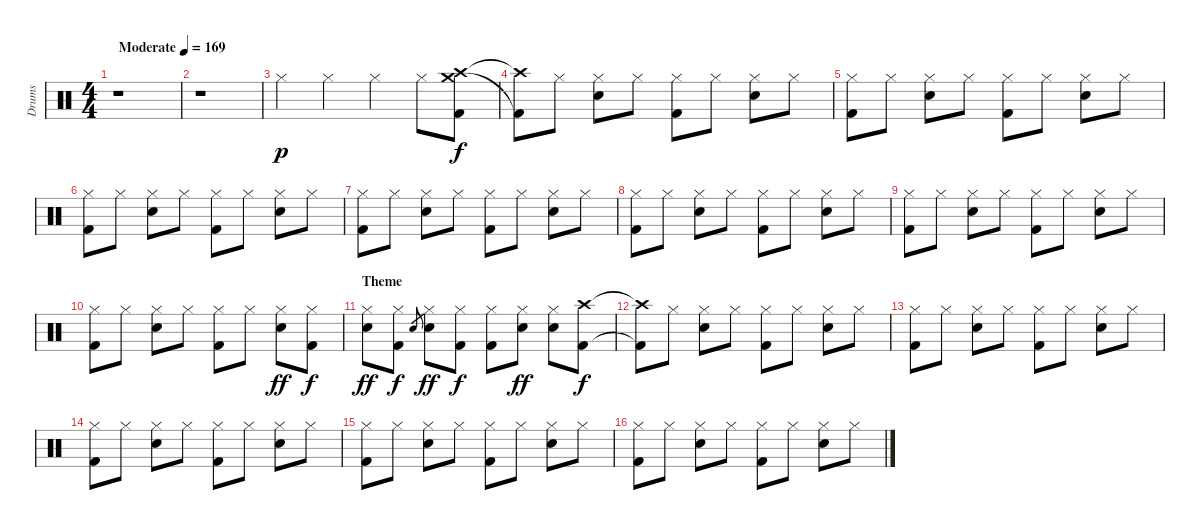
\track ("Drums" "Drums") {instrument percussion}
\staff {score}
\articulation defaults
\ts (4 4)
\tempo (169 "Moderate")
\clef neutral
\ks c
r.1{dy p} |
r.1 |
"Hi-Hat (closed)".4 "Hi-Hat (closed)".4 "Hi-Hat (closed)".4 "Hi-Hat (closed)".8 ("Crash high (hit)" "Crash medium (hit)" "Kick (hit) 2").8{dy f} |
("Crash high (hit)"{t} "Kick (hit) 2"{t}).8 "Hi-Hat (closed)".8 ("Hi-Hat (closed)" "Snare (hit) 2").8 "Hi-Hat (closed)".8 ("Hi-Hat (closed)" "Kick (hit) 2").8 "Hi-Hat (closed)".8 ("Hi-Hat (closed)" "Snare (hit) 2").8 "Hi-Hat (closed)".8 |
("Hi-Hat (closed)" "Kick (hit) 2").8 "Hi-Hat (closed)".8 ("Hi-Hat (closed)" "Snare (hit) 2").8 "Hi-Hat (closed)".8 ("Hi-Hat (closed)" "Kick (hit) 2").8 "Hi-Hat (closed)".8 ("Hi-Hat (closed)" "Snare (hit) 2").8 "Hi-Hat (closed)".8 |
("Hi-Hat (closed)" "Kick (hit) 2").8 "Hi-Hat (closed)".8 ("Hi-Hat (closed)" "Snare (hit) 2").8 "Hi-Hat (closed)".8 ("Hi-Hat (closed)" "Kick (hit) 2").8 "Hi-Hat (closed)".8 ("Hi-Hat (closed)" "Snare (hit) 2").8 "Hi-Hat (closed)".8 |
("Hi-Hat (closed)" "Kick (hit) 2").8 "Hi-Hat (closed)".8 ("Hi-Hat (closed)" "Snare (hit) 2").8 "Hi-Hat (closed)".8 ("Hi-Hat (closed)" "Kick (hit) 2").8 "Hi-Hat (closed)".8 ("Hi-Hat (closed)" "Snare (hit) 2").8 "Hi-Hat (closed)".8 |
("Hi-Hat (closed)" "Kick (hit) 2").8 "Hi-Hat (closed)".8 ("Hi-Hat (closed)" "Snare (hit) 2").8 "Hi-Hat (closed)".8 ("Hi-Hat (closed)" "Kick (hit) 2").8 "Hi-Hat (closed)".8 ("Hi-Hat (closed)" "Snare (hit) 2").8 "Hi-Hat (closed)".8 |
("Hi-Hat (closed)" "Kick (hit) 2").8 "Hi-Hat (closed)".8 ("Hi-Hat (closed)" "Snare (hit) 2").8 "Hi-Hat (closed)".8 ("Hi-Hat (closed)" "Kick (hit) 2").8 "Hi-Hat (closed)".8 ("Hi-Hat (closed)" "Snare (hit) 2").8 "Hi-Hat (closed)".8 |
("Hi-Hat (closed)" "Kick (hit) 2").8 "Hi-Hat (closed)".8 ("Hi-Hat (closed)" "Snare (hit) 2").8 "Hi-Hat (closed)".8 ("Hi-Hat (closed)" "Kick (hit) 2").8 "Hi-Hat (closed)".8 ("Hi-Hat (closed)" "Snare (hit) 2").8{dy ff} ("Hi-Hat (closed)" "Kick (hit) 2").8{dy f} |
\section ("" "Theme")
("Hi-Hat (closed)" "Snare (hit) 2").8{dy ff} ("Hi-Hat (closed)" "Kick (hit) 2").8{dy f} "Snare (hit) 2".8{gr} ("Hi-Hat (closed)" "Snare (hit) 2").8{dy ff} ("Hi-Hat (closed)" "Kick (hit) 2").8{dy f} ("Hi-Hat (closed)" "Kick (hit) 2").8 ("Hi-Hat (closed)" "Snare (hit) 2").8{dy ff} ("Hi-Hat (closed)" "Snare (hit) 2").8 ("Crash high (hit)" "Kick (hit) 2").8{dy f} |
("Crash high (hit)"{t} "Kick (hit) 2"{t}).8 "Hi-Hat (closed)".8 ("Hi-Hat (closed)" "Snare (hit) 2").8 "Hi-Hat (closed)".8 ("Hi-Hat (closed)" "Kick (hit) 2").8 "Hi-Hat (closed)".8 ("Hi-Hat (closed)" "Snare (hit) 2").8 "Hi-Hat (closed)".8 |
("Hi-Hat (closed)" "Kick (hit) 2").8 "Hi-Hat (closed)".8 ("Hi-Hat (closed)" "Snare (hit) 2").8 "Hi-Hat (closed)".8 ("Hi-Hat (closed)" "Kick (hit) 2").8 "Hi-Hat (closed)".8 ("Hi-Hat (closed)" "Snare (hit) 2").8 "Hi-Hat (closed)".8 |
("Hi-Hat (closed)" "Kick (hit) 2").8 "Hi-Hat (closed)".8 ("Hi-Hat (closed)" "Snare (hit) 2").8 "Hi-Hat (closed)".8 ("Hi-Hat (closed)" "Kick (hit) 2").8 "Hi-Hat (closed)".8 ("Hi-Hat (closed)" "Snare (hit) 2").8 "Hi-Hat (closed)".8 |
("Hi-Hat (closed)" "Kick (hit) 2").8 "Hi-Hat (closed)".8 ("Hi-Hat (closed)" "Snare (hit) 2").8 "Hi-Hat (closed)".8 ("Hi-Hat (closed)" "Kick (hit) 2").8 "Hi-Hat (closed)".8 ("Hi-Hat (closed)" "Snare (hit) 2").8 "Hi-Hat (closed)".8 |
("Hi-Hat (closed)" "Kick (hit) 2").8 "Hi-Hat (closed)".8 ("Hi-Hat (closed)" "Snare (hit) 2").8 "Hi-Hat (closed)".8 ("Hi-Hat (closed)" "Kick (hit) 2").8 "Hi-Hat (closed)".8 ("Hi-Hat (closed)" "Snare (hit) 2").8 "Hi-Hat (closed)".8
